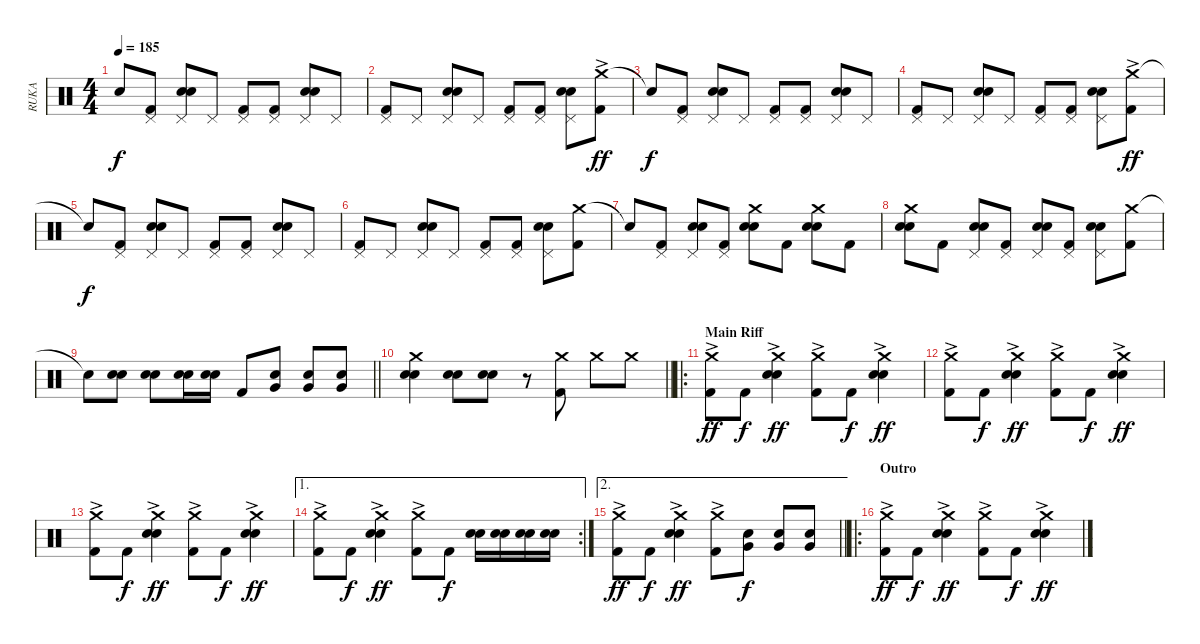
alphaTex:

\track ("RUKA" "RUKA") {instrument percussion}
\staff {score}
\articulation defaults
\ts (4 4)
\tempo 185
\clef neutral
\ks c "Snare (hit)"{t}.8{dy f}
("Pedal Hi-Hat (hit)" "Kick (hit) 2").8 ("Pedal Hi-Hat (hit)" "Snare (hit) 2" "Electric Snare (hit)").8 "Pedal Hi-Hat (hit)".8 ("Pedal Hi-Hat (hit)" "Kick (hit) 2").8 ("Pedal Hi-Hat (hit)" "Kick (hit) 2").8 ("Pedal Hi-Hat (hit)" "Snare (hit) 2" "Electric Snare (hit)").8 "Pedal Hi-Hat (hit)".8 |
("Pedal Hi-Hat (hit)" "Kick (hit) 2").8 "Pedal Hi-Hat (hit)".8 ("Pedal Hi-Hat (hit)" "Snare (hit) 2" "Electric Snare (hit)").8 "Pedal Hi-Hat (hit)".8 ("Pedal Hi-Hat (hit)" "Kick (hit) 2").8 ("Pedal Hi-Hat (hit)" "Kick (hit) 2").8 ("Pedal Hi-Hat (hit)" "Snare (hit) 2" "Electric Snare (hit)").8 ("Crash medium (hit)"{ac} "Kick (hit) 2").8{dy ff} |
"Snare (hit)"{t}.8{dy f} ("Pedal Hi-Hat (hit)" "Kick (hit) 2").8 ("Pedal Hi-Hat (hit)" "Snare (hit) 2" "Electric Snare (hit)").8 "Pedal Hi-Hat (hit)".8 ("Pedal Hi-Hat (hit)" "Kick (hit) 2").8 ("Pedal Hi-Hat (hit)" "Kick (hit) 2").8 ("Pedal Hi-Hat (hit)" "Snare (hit) 2" "Electric Snare (hit)").8 "Pedal Hi-Hat (hit)".8 |
("Pedal Hi-Hat (hit)" "Kick (hit) 2").8 "Pedal Hi-Hat (hit)".8 ("Pedal Hi-Hat (hit)" "Snare (hit) 2" "Electric Snare (hit)").8 "Pedal Hi-Hat (hit)".8 ("Pedal Hi-Hat (hit)" "Kick (hit) 2").8 ("Pedal Hi-Hat (hit)" "Kick (hit) 2").8 ("Pedal Hi-Hat (hit)" "Snare (hit) 2" "Electric Snare (hit)").8 ("Crash medium (hit)"{ac} "Kick (hit) 2").8{dy ff} |
"Snare (hit)"{t}.8{dy f} ("Pedal Hi-Hat (hit)" "Kick (hit) 2").8 ("Pedal Hi-Hat (hit)" "Snare (hit) 2" "Electric Snare (hit)").8 "Pedal Hi-Hat (hit)".8 ("Pedal Hi-Hat (hit)" "Kick (hit) 2").8 ("Pedal Hi-Hat (hit)" "Kick (hit) 2").8 ("Pedal Hi-Hat (hit)" "Snare (hit) 2" "Electric Snare (hit)").8 "Pedal Hi-Hat (hit)".8 |
("Pedal Hi-Hat (hit)" "Kick (hit) 2").8 "Pedal Hi-Hat (hit)".8 ("Pedal Hi-Hat (hit)" "Snare (hit) 2" "Electric Snare (hit)").8 "Pedal Hi-Hat (hit)".8 ("Pedal Hi-Hat (hit)" "Kick (hit) 2").8 ("Pedal Hi-Hat (hit)" "Kick (hit) 2").8 ("Pedal Hi-Hat (hit)" "Snare (hit) 2" "Electric Snare (hit)").8 ("Crash medium (hit)" "Kick (hit) 2").8 |
"Snare (hit)"{t}.8 ("Pedal Hi-Hat (hit)" "Kick (hit) 2").8 ("Pedal Hi-Hat (hit)" "Snare (hit) 2" "Electric Snare (hit)").8 ("Pedal Hi-Hat (hit)" "Kick (hit) 2").8 ("Crash medium (hit)" "Snare (hit) 2" "Electric Snare (hit)").8 "Kick (hit) 2".8 ("Crash medium (hit)" "Snare (hit) 2" "Electric Snare (hit)").8 "Kick (hit) 2".8 |
("Crash medium (hit)" "Snare (hit) 2" "Electric Snare (hit)").8 "Kick (hit) 2".8 ("Pedal Hi-Hat (hit)" "Snare (hit) 2" "Electric Snare (hit)").8 ("Pedal Hi-Hat (hit)" "Kick (hit) 2").8 ("Pedal Hi-Hat (hit)" "Snare (hit) 2" "Electric Snare (hit)").8 ("Pedal Hi-Hat (hit)" "Kick (hit) 2").8 ("Pedal Hi-Hat (hit)" "Snare (hit) 2" "Electric Snare (hit)").8 ("Crash medium (hit)" "Kick (hit) 2").8 |
\barLineRight lightlight "Snare (hit)"{t}.8
("Snare (hit) 2" "Electric Snare (hit)").8 ("Snare (hit) 2" "Electric Snare (hit)").8 ("Snare (hit) 2" "Electric Snare (hit)").16 ("Snare (hit) 2" "Electric Snare (hit)").16 "Kick (hit) 2".8 ("Snare (hit) 2" "Very Low Tom (hit)").8 ("Snare (hit) 2" "Very Low Tom (hit)").8 ("Snare (hit) 2" "Very Low Tom (hit)").8 |
\barLineRight lightlight
("Crash medium (hit)" "Snare (hit) 2" "Electric Snare (hit)").4 ("Snare (hit) 2" "Electric Snare (hit)").8 ("Snare (hit) 2" "Electric Snare (hit)").8 r.8 ("Crash medium (hit)" "Kick (hit) 2").8 "Crash medium (hit)".8 "Crash medium (hit)".8 |
\ro
\section ("" "Main Riff")
("Crash medium (hit)"{ac} "Kick (hit) 2").8{dy ff} "Kick (hit) 2".8{dy f} ("Crash medium (hit)"{ac} "Snare (hit) 2" "Electric Snare (hit)").4{dy ff} ("Crash medium (hit)"{ac} "Kick (hit) 2").8 "Kick (hit) 2".8{dy f} ("Crash medium (hit)"{ac} "Snare (hit) 2" "Electric Snare (hit)").4{dy ff} |
("Crash medium (hit)"{ac} "Kick (hit) 2").8 "Kick (hit) 2".8{dy f} ("Crash medium (hit)"{ac} "Snare (hit) 2" "Electric Snare (hit)").4{dy ff} ("Crash medium (hit)"{ac} "Kick (hit) 2").8 "Kick (hit) 2".8{dy f} ("Crash medium (hit)"{ac} "Snare (hit) 2" "Electric Snare (hit)").4{dy ff} |
("Crash medium (hit)"{ac} "Kick (hit) 2").8 "Kick (hit) 2".8{dy f} ("Crash medium (hit)"{ac} "Snare (hit) 2" "Electric Snare (hit)").4{dy ff} ("Crash medium (hit)"{ac} "Kick (hit) 2").8 "Kick (hit) 2".8{dy f} ("Crash medium (hit)"{ac} "Snare (hit) 2" "Electric Snare (hit)").4{dy ff} |
\ae 1
\rc 2
("Crash medium (hit)"{ac} "Kick (hit) 2").8 "Kick (hit) 2".8{dy f} ("Crash medium (hit)"{ac} "Snare (hit) 2" "Electric Snare (hit)").4{dy ff} ("Crash medium (hit)"{ac} "Kick (hit) 2").8 "Kick (hit) 2".8{dy f} ("Snare (hit) 2" "Electric Snare (hit)").16 ("Snare (hit) 2" "Electric Snare (hit)").16 ("Snare (hit) 2" "Electric Snare (hit)").16 ("Snare (hit) 2" "Electric Snare (hit)").16 |
\ae 2
\barLineRight lightlight
("Crash medium (hit)"{ac} "Kick (hit) 2").8{dy ff} "Kick (hit) 2".8{dy f} ("Crash medium (hit)"{ac} "Snare (hit) 2" "Electric Snare (hit)").4{dy ff} ("Crash medium (hit)"{ac} "Kick (hit) 2").8 ("Very Low Tom (hit)" "Snare (hit) 2").8{dy f} ("Very Low Tom (hit)" "Snare (hit) 2").8 ("Very Low Tom (hit)" "Snare (hit) 2").8 |
\ro
\section ("" "Outro")
("Crash medium (hit)"{ac} "Kick (hit) 2").8{dy ff} "Kick (hit) 2".8{dy f} ("Crash medium (hit)"{ac} "Snare (hit) 2" "Electric Snare (hit)").4{dy ff} ("Crash medium (hit)"{ac} "Kick (hit) 2").8 "Kick (hit) 2".8{dy f} ("Crash medium (hit)"{ac} "Snare (hit) 2" "Electric Snare (hit)").4{dy ff}
